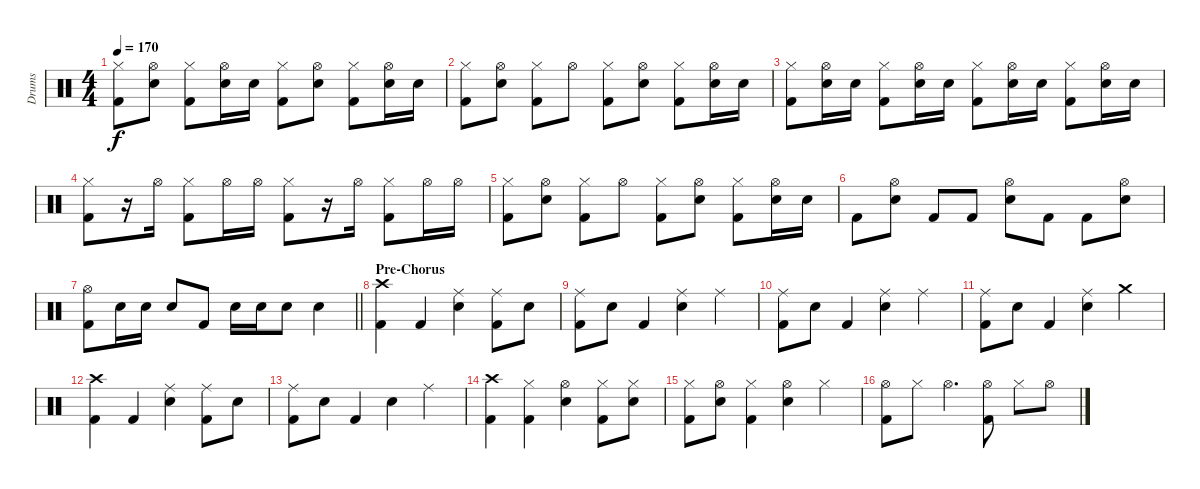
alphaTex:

\track ("Drums" "Drums") {instrument percussion}
\staff {score}
\articulation defaults
\ts (4 4)
\tempo 170
\clef neutral
\ks c
("Hi-Hat (closed)" "Kick (hit) 2").8{dy f} ("Electric Snare (hit)" "Hi-Hat (open)").8 ("Hi-Hat (closed)" "Kick (hit) 2").8 ("Electric Snare (hit)" "Hi-Hat (open)").16 "Electric Snare (hit)".16 ("Hi-Hat (closed)" "Kick (hit) 2").8 ("Electric Snare (hit)" "Hi-Hat (open)").8 ("Hi-Hat (closed)" "Kick (hit) 2").8 ("Electric Snare (hit)" "Hi-Hat (open)").16 "Electric Snare (hit)".16 |
("Hi-Hat (closed)" "Kick (hit) 2").8 ("Electric Snare (hit)" "Hi-Hat (open)").8 ("Hi-Hat (closed)" "Kick (hit) 2").8 "Hi-Hat (open)".8 ("Hi-Hat (closed)" "Kick (hit) 2").8 ("Electric Snare (hit)" "Hi-Hat (open)").8 ("Hi-Hat (closed)" "Kick (hit) 2").8 ("Electric Snare (hit)" "Hi-Hat (open)").16 "Electric Snare (hit)".16 |
("Hi-Hat (closed)" "Kick (hit) 2").8 ("Electric Snare (hit)" "Hi-Hat (open)").16 "Electric Snare (hit)".16 ("Hi-Hat (closed)" "Kick (hit) 2").8 ("Electric Snare (hit)" "Hi-Hat (open)").16 "Electric Snare (hit)".16 ("Hi-Hat (closed)" "Kick (hit) 2").8 ("Electric Snare (hit)" "Hi-Hat (open)").16 "Electric Snare (hit)".16 ("Hi-Hat (closed)" "Kick (hit) 2").8 ("Electric Snare (hit)" "Hi-Hat (open)").16 "Electric Snare (hit)".16 |
("Hi-Hat (closed)" "Kick (hit) 2").8 r.16 "Hi-Hat (open)".16 ("Hi-Hat (closed)" "Kick (hit) 2").8 "Hi-Hat (open)".16 "Hi-Hat (open)".16 ("Hi-Hat (closed)" "Kick (hit) 2").8 r.16 "Hi-Hat (open)".16 ("Hi-Hat (closed)" "Kick (hit) 2").8 "Hi-Hat (open)".16 "Hi-Hat (open)".16 |
("Hi-Hat (closed)" "Kick (hit) 2").8 ("Electric Snare (hit)" "Hi-Hat (open)").8 ("Hi-Hat (closed)" "Kick (hit) 2").8 "Hi-Hat (open)".8 ("Hi-Hat (closed)" "Kick (hit) 2").8 ("Electric Snare (hit)" "Hi-Hat (open)").8 ("Hi-Hat (closed)" "Kick (hit) 2").8 ("Electric Snare (hit)" "Hi-Hat (open)").16 "Electric Snare (hit)".16 |
"Kick (hit) 2".8 ("Electric Snare (hit)" "Hi-Hat (open)").8 "Kick (hit) 2".8 "Kick (hit) 2".8 ("Electric Snare (hit)" "Hi-Hat (open)").8 "Kick (hit) 2".8 "Kick (hit) 2".8 ("Electric Snare (hit)" "Hi-Hat (open)").8 |
\barLineRight lightlight
("Hi-Hat (open)" "Kick (hit) 2").8 "Electric Snare (hit)".16 "Electric Snare (hit)".16 "Electric Snare (hit)".8 "Kick (hit) 2".8 "Electric Snare (hit)".16 "Electric Snare (hit)".16 "Electric Snare (hit)".8 "Electric Snare (hit)".4 |
\section ("" "Pre-Chorus")
("Kick (hit) 2" "Crash high (hit)").4 "Kick (hit) 2".4 ("Electric Snare (hit)" "Ride (middle)").4 ("Kick (hit) 2" "Ride (middle)").8 "Electric Snare (hit)".8 |
("Kick (hit) 2" "Ride (middle)").8 "Electric Snare (hit)".8 "Kick (hit) 2".4 ("Electric Snare (hit)" "Ride (middle)").4 "Ride (middle)".4 |
("Kick (hit) 2" "Ride (middle)").8 "Electric Snare (hit)".8 "Kick (hit) 2".4 ("Electric Snare (hit)" "Ride (middle)").4 "Ride (middle)".4 |
("Kick (hit) 2" "Ride (middle)").8 "Electric Snare (hit)".8 "Kick (hit) 2".4 ("Electric Snare (hit)" "Ride (middle)").4 "Crash medium (hit)".4 |
("Kick (hit) 2" "Crash high (hit)").4 "Kick (hit) 2".4 ("Electric Snare (hit)" "Ride (middle)").4 ("Kick (hit) 2" "Ride (middle)").8 "Electric Snare (hit)".8 |
("Kick (hit) 2" "Ride (middle)").8 "Electric Snare (hit)".8 "Kick (hit) 2".4 "Electric Snare (hit)".4 "Ride (middle)".4 |
("Kick (hit) 2" "Crash high (hit)").4 ("Kick (hit) 2" "Hi-Hat (closed)").4 ("Electric Snare (hit)" "Hi-Hat (open)").4 ("Kick (hit) 2" "Hi-Hat (closed)").8 ("Electric Snare (hit)" "Hi-Hat (closed)").8 |
("Kick (hit) 2" "Hi-Hat (closed)").8 ("Electric Snare (hit)" "Hi-Hat (open)").8 ("Kick (hit) 2" "Hi-Hat (closed)").4 ("Electric Snare (hit)" "Hi-Hat (open)").4 "Hi-Hat (closed)".4 |
("Hi-Hat (open)" "Kick (hit) 2").8 "Hi-Hat (closed)".8 "Hi-Hat (open)".4{d} ("Hi-Hat (open)" "Kick (hit) 2").8 "Hi-Hat (closed)".8 "Hi-Hat (open)".8
